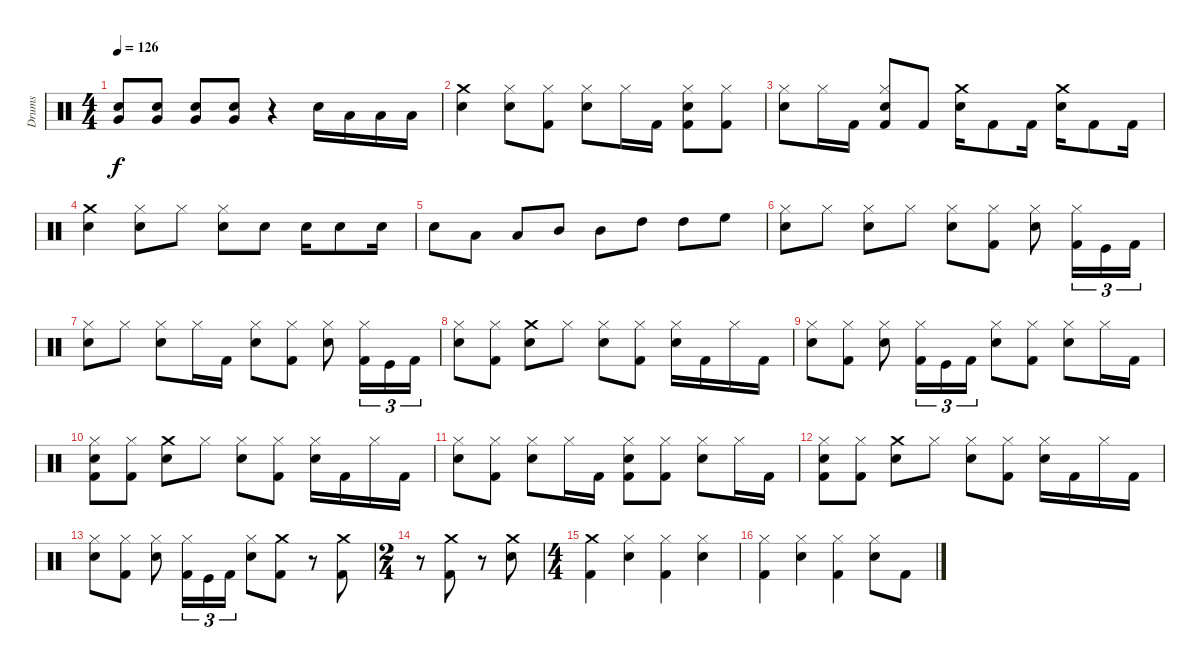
\track ("Drums" "Drums") {instrument percussion}
\staff {score}
\articulation defaults
\ts (4 4)
\tempo 126
\clef neutral
\ks c
("Very Low Tom (hit)" "Snare (hit) 2").8{dy f} ("Very Low Tom (hit)" "Snare (hit) 2").8 ("Very Low Tom (hit)" "Snare (hit) 2").8 ("Very Low Tom (hit)" "Snare (hit) 2").8 r.4 "Snare (hit) 2".16 "Low Tom (hit)".16 "Low Tom (hit)".16 "Low Tom (hit)".16 |
("Snare (hit) 2" "Crash medium (hit)").4 ("Hi-Hat (closed)" "Snare (hit) 2").8 ("Kick (hit) 2" "Hi-Hat (closed)").8 ("Hi-Hat (closed)" "Snare (hit) 2").8 "Hi-Hat (closed)".16 "Kick (hit) 2".16 ("Kick (hit) 2" "Snare (hit) 2" "Hi-Hat (closed)").8 ("Hi-Hat (closed)" "Kick (hit) 2").8 |
("Hi-Hat (closed)" "Snare (hit) 2").8 "Hi-Hat (closed)".16 "Kick (hit) 2".16 ("Kick (hit) 2" "Snare (hit) 2" "Hi-Hat (closed)").8 "Kick (hit) 2".8 ("Snare (hit) 2" "Crash medium (hit)").16 "Kick (hit) 2".8 "Kick (hit) 2".16 ("Snare (hit) 2" "Crash medium (hit)").16 "Kick (hit) 2".8 "Kick (hit) 2".16 |
("Crash medium (hit)" "Snare (hit) 2").4 ("Hi-Hat (closed)" "Snare (hit) 2").8 "Hi-Hat (closed)".8 ("Snare (hit) 2" "Hi-Hat (closed)").8 "Snare (hit) 2".8 "Snare (hit) 2".16 "Snare (hit) 2".8 "Snare (hit) 2".16 |
"Snare (hit) 2".8 "Low Tom (hit)".8 "Low Tom (hit)".8 "Mid Tom (hit)".8 "Mid Tom (hit)".8 "High Tom (hit)".8 "High Tom (hit)".8 "High Floor Tom (hit)".8 |
("Hi-Hat (closed)" "Snare (hit) 2").8 "Hi-Hat (closed)".8 ("Snare (hit) 2" "Hi-Hat (closed)").8 "Hi-Hat (closed)".8 ("Snare (hit) 2" "Hi-Hat (closed)").8 ("Kick (hit) 2" "Hi-Hat (closed)").8 ("Snare (hit) 2" "Hi-Hat (closed)").8 ("Kick (hit) 2" "Hi-Hat (closed)").16{tu (3 2)} "Kick (hit)".16{tu (3 2)} "Kick (hit) 2".16{tu (3 2)} |
("Hi-Hat (closed)" "Snare (hit) 2").8 "Hi-Hat (closed)".8 ("Snare (hit) 2" "Hi-Hat (closed)").8 "Hi-Hat (closed)".16 "Kick (hit) 2".16 ("Snare (hit) 2" "Hi-Hat (closed)").8 ("Kick (hit) 2" "Hi-Hat (closed)").8 ("Snare (hit) 2" "Hi-Hat (closed)").8 ("Kick (hit) 2" "Hi-Hat (closed)").16{tu (3 2)} "Kick (hit)".16{tu (3 2)} "Kick (hit) 2".16{tu (3 2)} |
("Hi-Hat (closed)" "Snare (hit) 2").8 ("Kick (hit) 2" "Hi-Hat (closed)").8 ("Crash medium (hit)" "Snare (hit) 2").8 "Hi-Hat (closed)".8 ("Snare (hit) 2" "Hi-Hat (closed)").8 ("Kick (hit) 2" "Hi-Hat (closed)").8 ("Snare (hit) 2" "Hi-Hat (closed)").16 "Kick (hit) 2".16 "Hi-Hat (closed)".16 "Kick (hit) 2".16 |
("Snare (hit) 2" "Hi-Hat (closed)").8 ("Hi-Hat (closed)" "Kick (hit) 2").8 ("Snare (hit) 2" "Hi-Hat (closed)").8 ("Hi-Hat (closed)" "Kick (hit) 2").16{tu (3 2)} "Kick (hit)".16{tu (3 2)} "Kick (hit) 2".16{tu (3 2)} ("Snare (hit) 2" "Hi-Hat (closed)").8 ("Kick (hit) 2" "Hi-Hat (closed)").8 ("Hi-Hat (closed)" "Snare (hit) 2").8 "Hi-Hat (closed)".16 "Kick (hit) 2".16 |
("Kick (hit) 2" "Snare (hit) 2" "Hi-Hat (closed)").8 ("Kick (hit) 2" "Hi-Hat (closed)").8 ("Crash medium (hit)" "Snare (hit) 2").8 "Hi-Hat (closed)".8 ("Snare (hit) 2" "Hi-Hat (closed)").8 ("Kick (hit) 2" "Hi-Hat (closed)").8 ("Hi-Hat (closed)" "Snare (hit) 2").16 "Kick (hit) 2".16 "Hi-Hat (closed)".16 "Kick (hit) 2".16 |
("Hi-Hat (closed)" "Snare (hit) 2").8 ("Kick (hit) 2" "Hi-Hat (closed)").8 ("Snare (hit) 2" "Hi-Hat (closed)").8 "Hi-Hat (closed)".16 "Kick (hit) 2".16 ("Kick (hit) 2" "Snare (hit) 2" "Hi-Hat (closed)").8 ("Kick (hit) 2" "Hi-Hat (closed)").8 ("Snare (hit) 2" "Hi-Hat (closed)").8 "Hi-Hat (closed)".16 "Kick (hit) 2".16 |
("Kick (hit) 2" "Snare (hit) 2" "Hi-Hat (closed)").8 ("Kick (hit) 2" "Hi-Hat (closed)").8 ("Crash medium (hit)" "Snare (hit) 2").8 "Hi-Hat (closed)".8 ("Snare (hit) 2" "Hi-Hat (closed)").8 ("Kick (hit) 2" "Hi-Hat (closed)").8 ("Hi-Hat (closed)" "Snare (hit) 2").16 "Kick (hit) 2".16 "Hi-Hat (closed)".16 "Kick (hit) 2".16 |
("Snare (hit) 2" "Hi-Hat (closed)").8 ("Hi-Hat (closed)" "Kick (hit) 2").8 ("Snare (hit) 2" "Hi-Hat (closed)").8 ("Hi-Hat (closed)" "Kick (hit) 2").16{tu (3 2)} "Kick (hit)".16{tu (3 2)} "Kick (hit) 2".16{tu (3 2)} ("Hi-Hat (closed)" "Snare (hit) 2").8 ("Kick (hit) 2" "Crash medium (hit)").8 r.8 ("Crash medium (hit)" "Kick (hit) 2").8 |
\ts (2 4)
r.8 ("Kick (hit) 2" "Crash medium (hit)").8 r.8 ("Snare (hit) 2" "Crash medium (hit)").8 |
\ts (4 4)
("Kick (hit) 2" "Crash medium (hit)").4 ("Hi-Hat (closed)" "Snare (hit) 2").4 ("Hi-Hat (closed)" "Kick (hit) 2").4 ("Snare (hit) 2" "Hi-Hat (closed)").4 |
("Hi-Hat (closed)" "Kick (hit) 2").4 ("Hi-Hat (closed)" "Snare (hit) 2").4 ("Hi-Hat (closed)" "Kick (hit) 2").4 ("Hi-Hat (closed)" "Snare (hit) 2").8 "Kick (hit) 2".8
